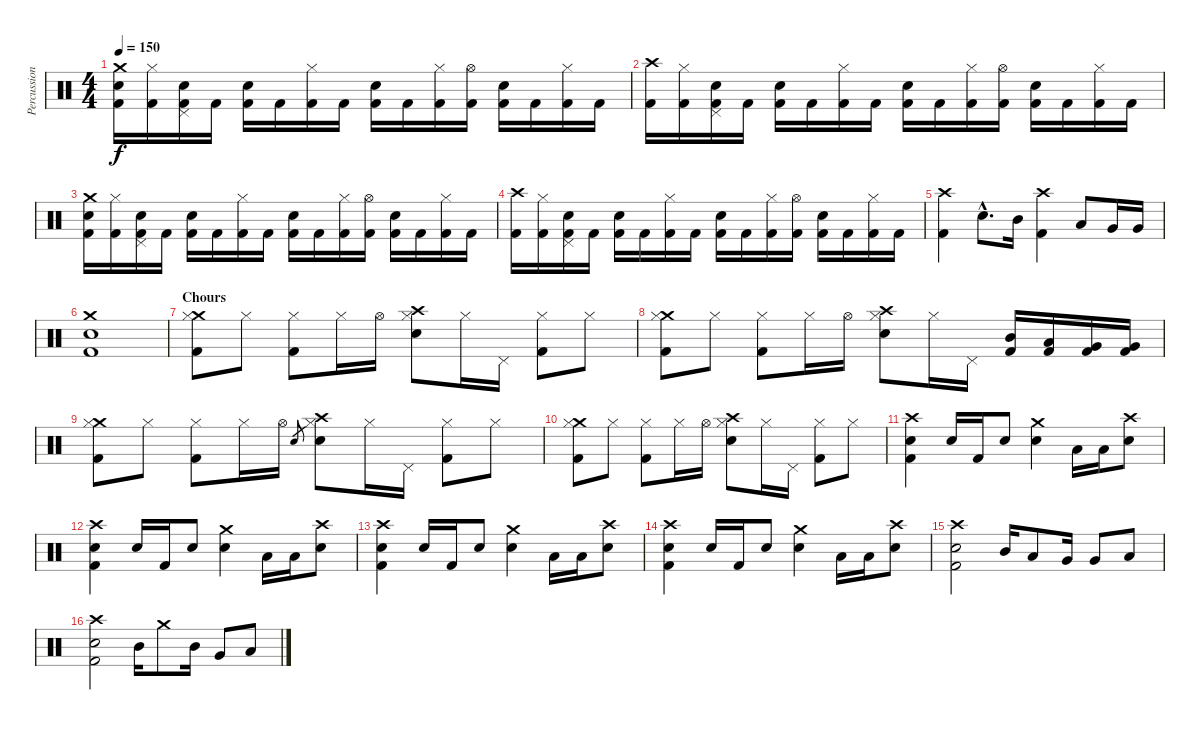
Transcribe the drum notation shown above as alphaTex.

\track ("Percussioni" "Percussion") {instrument percussion}
\staff {score}
\articulation defaults
\ts (4 4)
\tempo 150
\clef neutral
\ks c
("Crash medium (hit)" "Snare (hit) 2" "Kick (hit) 2").16{dy f} ("Kick (hit) 2" "Hi-Hat (closed)").16 ("Snare (hit) 2" "Kick (hit) 2" "Pedal Hi-Hat (hit)").16 "Kick (hit) 2".16 ("Snare (hit) 2" "Kick (hit) 2").16 "Kick (hit) 2".16 ("Kick (hit) 2" "Hi-Hat (closed)").16 "Kick (hit) 2".16 ("Snare (hit) 2" "Kick (hit) 2").16 "Kick (hit) 2".16 ("Kick (hit) 2" "Hi-Hat (closed)").16 ("Kick (hit) 2" "Hi-Hat (open)").16 ("Snare (hit) 2" "Kick (hit) 2").16 "Kick (hit) 2".16 ("Kick (hit) 2" "Hi-Hat (closed)").16 "Kick (hit) 2".16 |
("Crash high (hit)" "Kick (hit) 2").16 ("Kick (hit) 2" "Hi-Hat (closed)").16 ("Snare (hit) 2" "Kick (hit) 2" "Pedal Hi-Hat (hit)").16 "Kick (hit) 2".16 ("Snare (hit) 2" "Kick (hit) 2").16 "Kick (hit) 2".16 ("Kick (hit) 2" "Hi-Hat (closed)").16 "Kick (hit) 2".16 ("Snare (hit) 2" "Kick (hit) 2").16 "Kick (hit) 2".16 ("Kick (hit) 2" "Hi-Hat (closed)").16 ("Kick (hit) 2" "Hi-Hat (open)").16 ("Snare (hit) 2" "Kick (hit) 2").16 "Kick (hit) 2".16 ("Kick (hit) 2" "Hi-Hat (closed)").16 "Kick (hit) 2".16 |
("Crash medium (hit)" "Snare (hit) 2" "Kick (hit) 2").16 ("Kick (hit) 2" "Hi-Hat (closed)").16 ("Snare (hit) 2" "Kick (hit) 2" "Pedal Hi-Hat (hit)").16 "Kick (hit) 2".16 ("Snare (hit) 2" "Kick (hit) 2").16 "Kick (hit) 2".16 ("Kick (hit) 2" "Hi-Hat (closed)").16 "Kick (hit) 2".16 ("Snare (hit) 2" "Kick (hit) 2").16 "Kick (hit) 2".16 ("Kick (hit) 2" "Hi-Hat (closed)").16 ("Kick (hit) 2" "Hi-Hat (open)").16 ("Snare (hit) 2" "Kick (hit) 2").16 "Kick (hit) 2".16 ("Kick (hit) 2" "Hi-Hat (closed)").16 "Kick (hit) 2".16 |
("Crash high (hit)" "Kick (hit) 2").16 ("Kick (hit) 2" "Hi-Hat (closed)").16 ("Snare (hit) 2" "Kick (hit) 2" "Pedal Hi-Hat (hit)").16 "Kick (hit) 2".16 ("Snare (hit) 2" "Kick (hit) 2").16 "Kick (hit) 2".16 ("Kick (hit) 2" "Hi-Hat (closed)").16 "Kick (hit) 2".16 ("Snare (hit) 2" "Kick (hit) 2").16 "Kick (hit) 2".16 ("Kick (hit) 2" "Hi-Hat (closed)").16 ("Kick (hit) 2" "Hi-Hat (open)").16 ("Snare (hit) 2" "Kick (hit) 2").16 "Kick (hit) 2".16 ("Kick (hit) 2" "Hi-Hat (closed)").16 "Kick (hit) 2".16 |
("Crash high (hit)" "Kick (hit) 2").4 "Snare (hit) 2"{hac}.8{d} "Mid Tom (hit)".16 ("Crash high (hit)" "Kick (hit) 2").4 "Low Tom (hit)".8 "Very Low Tom (hit)".16 "Very Low Tom (hit)".16 |
("Crash medium (hit)" "Snare (hit) 2" "Kick (hit) 2").1 |
\section ("" "Chours")
("Crash medium (hit)" "Kick (hit) 2" "Hi-Hat (closed)").8 "Hi-Hat (closed)".8 ("Kick (hit) 2" "Hi-Hat (closed)").8 "Hi-Hat (closed)".16 "Hi-Hat (open)".16 ("Crash high (hit)" "Snare (hit) 2" "Hi-Hat (closed)").8 "Hi-Hat (closed)".16 "Pedal Hi-Hat (hit)".16 ("Kick (hit) 2" "Hi-Hat (closed)").8 "Hi-Hat (closed)".8 |
("Crash medium (hit)" "Kick (hit) 2" "Hi-Hat (closed)").8 "Hi-Hat (closed)".8 ("Kick (hit) 2" "Hi-Hat (closed)").8 "Hi-Hat (closed)".16 "Hi-Hat (open)".16 ("Crash high (hit)" "Snare (hit) 2" "Hi-Hat (closed)").8 "Hi-Hat (closed)".16 "Pedal Hi-Hat (hit)".16 ("Mid Tom (hit)" "Kick (hit) 2").16 ("Low Tom (hit)" "Kick (hit) 2").16 ("Very Low Tom (hit)" "Kick (hit) 2").16 ("Very Low Tom (hit)" "Kick (hit) 2").16 |
("Crash medium (hit)" "Kick (hit) 2" "Hi-Hat (closed)").8 "Hi-Hat (closed)".8 ("Kick (hit) 2" "Hi-Hat (closed)").8 "Hi-Hat (closed)".16 "Hi-Hat (open)".16 "Snare (hit) 2".8{gr} ("Crash high (hit)" "Snare (hit) 2" "Hi-Hat (closed)").8 "Hi-Hat (closed)".16 "Pedal Hi-Hat (hit)".16 ("Kick (hit) 2" "Hi-Hat (closed)").8 "Hi-Hat (closed)".8 |
("Crash medium (hit)" "Kick (hit) 2" "Hi-Hat (closed)").8 "Hi-Hat (closed)".8 ("Kick (hit) 2" "Hi-Hat (closed)").8 "Hi-Hat (closed)".16 "Hi-Hat (open)".16 ("Crash high (hit)" "Snare (hit) 2" "Hi-Hat (closed)").8 "Hi-Hat (closed)".16 "Pedal Hi-Hat (hit)".16 ("Kick (hit) 2" "Hi-Hat (closed)").8 "Hi-Hat (closed)".8 |
("Crash high (hit)" "Snare (hit) 2" "Kick (hit) 2").4 "Snare (hit) 2".16 "Kick (hit) 2".16 "Snare (hit) 2".8 ("Crash medium (hit)" "Snare (hit) 2").4 "Low Tom (hit)".16 "Low Tom (hit)".16 ("Crash high (hit)" "Snare (hit) 2").8 |
("Crash high (hit)" "Snare (hit) 2" "Kick (hit) 2").4 "Snare (hit) 2".16 "Kick (hit) 2".16 "Snare (hit) 2".8 ("Crash medium (hit)" "Snare (hit) 2").4 "Low Tom (hit)".16 "Low Tom (hit)".16 ("Crash high (hit)" "Snare (hit) 2").8 |
("Crash high (hit)" "Snare (hit) 2" "Kick (hit) 2").4 "Snare (hit) 2".16 "Kick (hit) 2".16 "Snare (hit) 2".8 ("Crash medium (hit)" "Snare (hit) 2").4 "Low Tom (hit)".16 "Low Tom (hit)".16 ("Crash high (hit)" "Snare (hit) 2").8 |
("Crash high (hit)" "Snare (hit) 2" "Kick (hit) 2").4 "Snare (hit) 2".16 "Kick (hit) 2".16 "Snare (hit) 2".8 ("Crash medium (hit)" "Snare (hit) 2").4 "Low Tom (hit)".16 "Low Tom (hit)".16 ("Crash high (hit)" "Snare (hit) 2").8 |
("Crash high (hit)" "Snare (hit) 2" "Kick (hit) 2").2 "Mid Tom (hit)".16 "Low Tom (hit)".8 "Very Low Tom (hit)".16 "Very Low Tom (hit)".8 "Low Tom (hit)".8 |
("Crash high (hit)" "Snare (hit) 2" "Kick (hit) 2").2 "Mid Tom (hit)".16 "Crash medium (hit)".8 "Mid Tom (hit)".16 "Very Low Tom (hit)".8 "Low Tom (hit)".8
